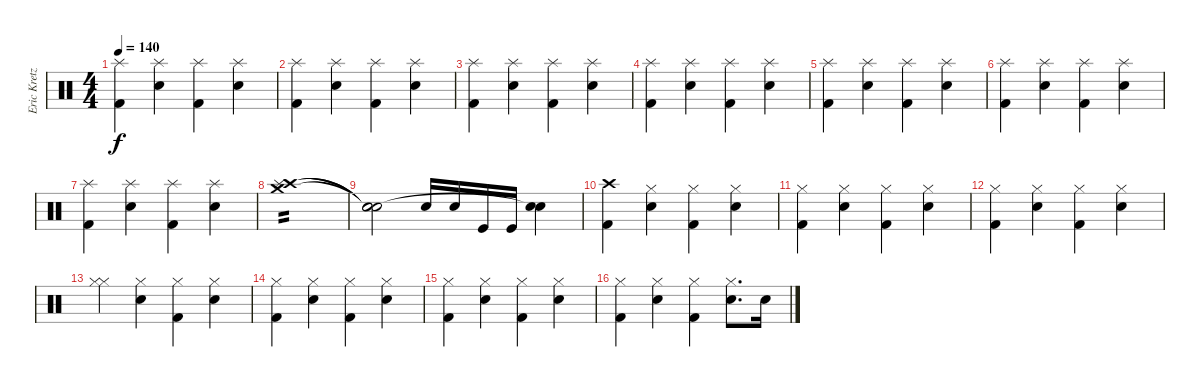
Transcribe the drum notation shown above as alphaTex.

\track ("Eric Kretz" "Eric Kretz") {instrument percussion}
\staff {score}
\articulation defaults
\ts (4 4)
\tempo 140
\clef neutral
\ks c
("Splash (hit)" "Kick (hit) 2").4{dy f} ("Splash (hit)" "Snare (hit) 2").4 ("Splash (hit)" "Kick (hit) 2").4 ("Splash (hit)" "Snare (hit) 2").4 |
("Kick (hit) 2" "Splash (hit)").4 ("Snare (hit) 2" "Splash (hit)").4 ("Kick (hit) 2" "Splash (hit)").4 ("Snare (hit) 2" "Splash (hit)").4 |
("Splash (hit)" "Kick (hit) 2").4 ("Splash (hit)" "Snare (hit) 2").4 ("Splash (hit)" "Kick (hit) 2").4 ("Splash (hit)" "Snare (hit) 2").4 |
("Kick (hit) 2" "Splash (hit)").4 ("Snare (hit) 2" "Splash (hit)").4 ("Kick (hit) 2" "Splash (hit)").4 ("Snare (hit) 2" "Splash (hit)").4 |
("Splash (hit)" "Kick (hit) 2").4 ("Splash (hit)" "Snare (hit) 2").4 ("Splash (hit)" "Kick (hit) 2").4 ("Splash (hit)" "Snare (hit) 2").4 |
("Kick (hit) 2" "Splash (hit)").4 ("Snare (hit) 2" "Splash (hit)").4 ("Kick (hit) 2" "Splash (hit)").4 ("Snare (hit) 2" "Splash (hit)").4 |
("Splash (hit)" "Kick (hit) 2").4 ("Splash (hit)" "Snare (hit) 2").4 ("Splash (hit)" "Kick (hit) 2").4 ("Splash (hit)" "Snare (hit) 2").4 |
("Crash high (hit)" "Crash medium (hit)" "Splash (hit)").1{tp 2} |
("Snare (hit)"{t} "Snare (hit)"{t} "Snare (hit)"{t}).2 "Snare (hit) 2".16 "Snare (hit) 2".16 "Kick (hit)".16 "Kick (hit)".16 ("Snare (hit) 2" "Snare (hit)"{t}).4 |
("Kick (hit) 2" "Crash high (hit)").4 ("Snare (hit) 2" "Hi-Hat (closed)").4 ("Kick (hit) 2" "Hi-Hat (closed)").4 ("Snare (hit) 2" "Hi-Hat (closed)").4 |
("Kick (hit) 2" "Hi-Hat (closed)").4 ("Snare (hit) 2" "Hi-Hat (closed)").4 ("Kick (hit) 2" "Hi-Hat (closed)").4 ("Snare (hit) 2" "Hi-Hat (closed)").4 |
("Kick (hit) 2" "Hi-Hat (closed)").4 ("Snare (hit) 2" "Hi-Hat (closed)").4 ("Kick (hit) 2" "Hi-Hat (closed)").4 ("Snare (hit) 2" "Hi-Hat (closed)").4 |
("Hi-Hat (closed)" "Hi-Hat (closed)").4 ("Snare (hit) 2" "Hi-Hat (closed)").4 ("Kick (hit) 2" "Hi-Hat (closed)").4 ("Snare (hit) 2" "Hi-Hat (closed)").4 |
("Kick (hit) 2" "Hi-Hat (closed)").4 ("Snare (hit) 2" "Hi-Hat (closed)").4 ("Kick (hit) 2" "Hi-Hat (closed)").4 ("Snare (hit) 2" "Hi-Hat (closed)").4 |
("Kick (hit) 2" "Hi-Hat (closed)").4 ("Snare (hit) 2" "Hi-Hat (closed)").4 ("Kick (hit) 2" "Hi-Hat (closed)").4 ("Snare (hit) 2" "Hi-Hat (closed)").4 |
("Kick (hit) 2" "Hi-Hat (closed)").4 ("Snare (hit) 2" "Hi-Hat (closed)").4 ("Kick (hit) 2" "Hi-Hat (closed)").4 ("Snare (hit) 2" "Hi-Hat (closed)").8{d} "Snare (hit) 2".16
